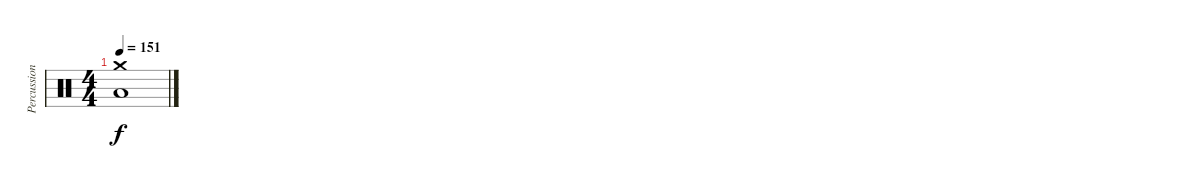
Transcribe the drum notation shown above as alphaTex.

\track ("Percussion" "Percussion") {instrument percussion}
\staff {score}
\articulation defaults
\ts (4 4)
\tempo 151
\clef neutral
\ks c
("Low Floor Tom (hit)" "Crash medium (hit)").1{dy f}
